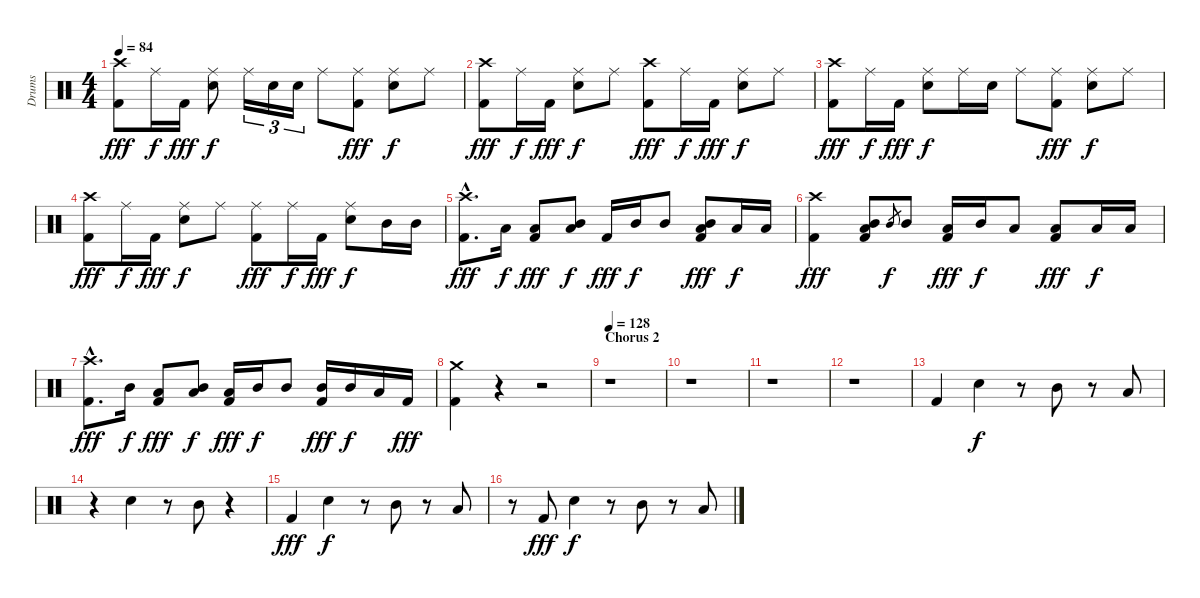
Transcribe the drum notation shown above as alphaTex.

\track ("Drums" "Drums") {instrument percussion}
\staff {score}
\articulation defaults
\ts (4 4)
\tempo 84
\clef neutral
\ks c
("Crash high (hit)" "Kick (hit) 2").8{dy fff} "Ride (middle)".16{dy f} "Kick (hit) 2".16{dy fff} ("Ride (middle)" "Electric Snare (hit)").8{dy f} "Ride (middle)".16{tu (3 2)} "Electric Snare (hit)".16{tu (3 2)} "Electric Snare (hit)".16{tu (3 2)} "Ride (middle)".8 ("Ride (middle)" "Kick (hit) 2").8{dy fff} ("Ride (middle)" "Electric Snare (hit)").8{dy f} "Ride (middle)".8 |
("Crash high (hit)" "Kick (hit) 2").8{dy fff} "Ride (middle)".16{dy f} "Kick (hit) 2".16{dy fff} ("Ride (middle)" "Electric Snare (hit)").8{dy f} "Ride (middle)".8 ("Crash high (hit)" "Kick (hit) 2").8{dy fff} "Ride (middle)".16{dy f} "Kick (hit) 2".16{dy fff} ("Ride (middle)" "Electric Snare (hit)").8{dy f} "Ride (middle)".8 |
("Crash high (hit)" "Kick (hit) 2").8{dy fff} "Ride (middle)".16{dy f} "Kick (hit) 2".16{dy fff} ("Ride (middle)" "Electric Snare (hit)").8{dy f} "Ride (middle)".16 "Electric Snare (hit)".16 "Ride (middle)".8 ("Ride (middle)" "Kick (hit) 2").8{dy fff} ("Ride (middle)" "Electric Snare (hit)").8{dy f} "Ride (middle)".8 |
("Crash high (hit)" "Kick (hit) 2").8{dy fff} "Ride (middle)".16{dy f} "Kick (hit) 2".16{dy fff} ("Ride (middle)" "Electric Snare (hit)").8{dy f} "Ride (middle)".8 ("Ride (middle)" "Kick (hit) 2").8{dy fff} "Ride (middle)".16{dy f} "Kick (hit) 2".16{dy fff} ("Ride (middle)" "Electric Snare (hit)").8{dy f} "Mid Tom (hit)".16 "Mid Tom (hit)".16 |
("Crash high (hit)"{hac} "Kick (hit) 2"{hac}).8{d dy fff} "Low Tom (hit)".16{dy f} ("Low Tom (hit)" "Kick (hit) 2").8{dy fff} ("Mid Tom (hit)" "Low Tom (hit)").8{dy f} "Kick (hit) 2".16{dy fff} "Mid Tom (hit)".16{dy f} "Mid Tom (hit)".8 ("Mid Tom (hit)" "Low Tom (hit)" "Kick (hit) 2").8{dy fff} "Low Tom (hit)".16{dy f} "Low Tom (hit)".16 |
("Crash high (hit)" "Kick (hit) 2").4{dy fff} ("Mid Tom (hit)" "Low Tom (hit)" "Kick (hit) 2").8 "Mid Tom (hit)".8{gr dy f} "Mid Tom (hit)".8 ("Low Tom (hit)" "Kick (hit) 2").16{dy fff} "Mid Tom (hit)".16{dy f} "Low Tom (hit)".8 ("Low Tom (hit)" "Kick (hit) 2").8{dy fff} "Low Tom (hit)".16{dy f} "Low Tom (hit)".16 |
("Crash high (hit)"{hac} "Kick (hit) 2"{hac}).8{d dy fff} "Mid Tom (hit)".16{dy f} ("Low Tom (hit)" "Kick (hit) 2").8{dy fff} ("Mid Tom (hit)" "Low Tom (hit)").8{dy f} ("Low Tom (hit)" "Kick (hit) 2").16{dy fff} "Mid Tom (hit)".16{dy f} "Mid Tom (hit)".8 ("Mid Tom (hit)" "Kick (hit) 2").16{dy fff} "Mid Tom (hit)".16{dy f} "Low Tom (hit)".16 "Kick (hit) 2".16{dy fff} |
("Crash medium (hit)" "Kick (hit) 2").4 r.4 r.2 |
\section ("" "Chorus 2")
\tempo 128
r.1 |
r.1 |
r.1 |
r.1 |
"Kick (hit) 2".4 "Electric Snare (hit)".4{dy f} r.8 "Mid Tom (hit)".8 r.8 "Low Tom (hit)".8 |
r.4 "Electric Snare (hit)".4 r.8 "Mid Tom (hit)".8 r.4 |
"Kick (hit) 2".4{dy fff} "Electric Snare (hit)".4{dy f} r.8 "Mid Tom (hit)".8 r.8 "Low Tom (hit)".8 |
r.8 "Kick (hit) 2".8{dy fff} "Electric Snare (hit)".4{dy f} r.8 "Mid Tom (hit)".8 r.8 "Low Tom (hit)".8
